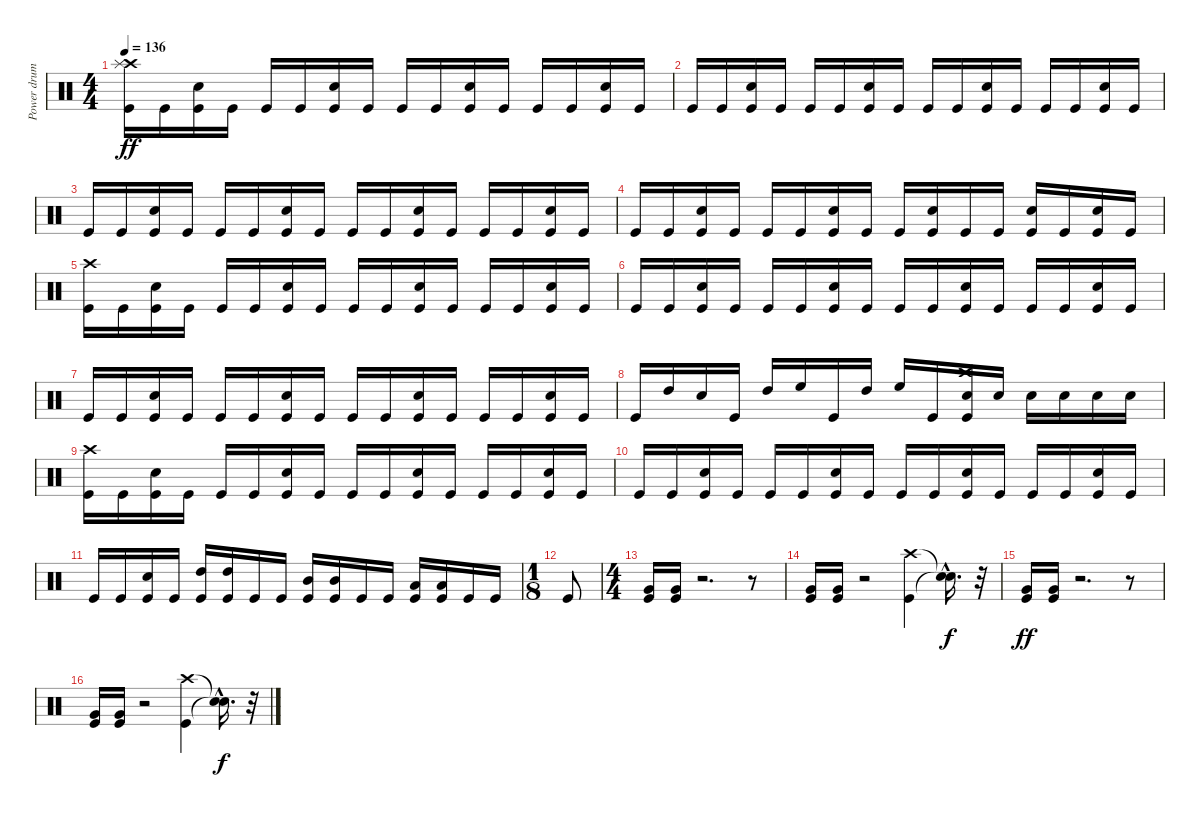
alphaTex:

\track ("Power drums" "Power drum") {instrument percussion}
\staff {score}
\articulation defaults
\ts (4 4)
\tempo 136
\clef neutral
\ks c
("Kick (hit)" "Crash high (hit)" "Splash (hit)").16{dy ff} "Kick (hit)".16 ("Kick (hit)" "Snare (hit) 2").16 "Kick (hit)".16 "Kick (hit)".16 "Kick (hit)".16 ("Kick (hit)" "Snare (hit) 2").16 "Kick (hit)".16 "Kick (hit)".16 "Kick (hit)".16 ("Kick (hit)" "Snare (hit) 2").16 "Kick (hit)".16 "Kick (hit)".16 "Kick (hit)".16 ("Kick (hit)" "Snare (hit) 2").16 "Kick (hit)".16 |
"Kick (hit)".16 "Kick (hit)".16 ("Kick (hit)" "Snare (hit) 2").16 "Kick (hit)".16 "Kick (hit)".16 "Kick (hit)".16 ("Kick (hit)" "Snare (hit) 2").16 "Kick (hit)".16 "Kick (hit)".16 "Kick (hit)".16 ("Kick (hit)" "Snare (hit) 2").16 "Kick (hit)".16 "Kick (hit)".16 "Kick (hit)".16 ("Kick (hit)" "Snare (hit) 2").16 "Kick (hit)".16 |
"Kick (hit)".16 "Kick (hit)".16 ("Kick (hit)" "Snare (hit) 2").16 "Kick (hit)".16 "Kick (hit)".16 "Kick (hit)".16 ("Kick (hit)" "Snare (hit) 2").16 "Kick (hit)".16 "Kick (hit)".16 "Kick (hit)".16 ("Kick (hit)" "Snare (hit) 2").16 "Kick (hit)".16 "Kick (hit)".16 "Kick (hit)".16 ("Kick (hit)" "Snare (hit) 2").16 "Kick (hit)".16 |
"Kick (hit)".16 "Kick (hit)".16 ("Kick (hit)" "Snare (hit) 2").16 "Kick (hit)".16 "Kick (hit)".16 "Kick (hit)".16 ("Kick (hit)" "Snare (hit) 2").16 "Kick (hit)".16 "Kick (hit)".16 ("Kick (hit)" "Snare (hit) 2").16 "Kick (hit)".16 "Kick (hit)".16 ("Kick (hit)" "Snare (hit) 2").16 "Kick (hit)".16 ("Kick (hit)" "Snare (hit) 2").16 "Kick (hit)".16 |
("Kick (hit)" "Crash high (hit)").16 "Kick (hit)".16 ("Kick (hit)" "Snare (hit) 2").16 "Kick (hit)".16 "Kick (hit)".16 "Kick (hit)".16 ("Kick (hit)" "Snare (hit) 2").16 "Kick (hit)".16 "Kick (hit)".16 "Kick (hit)".16 ("Kick (hit)" "Snare (hit) 2").16 "Kick (hit)".16 "Kick (hit)".16 "Kick (hit)".16 ("Kick (hit)" "Snare (hit) 2").16 "Kick (hit)".16 |
"Kick (hit)".16 "Kick (hit)".16 ("Kick (hit)" "Snare (hit) 2").16 "Kick (hit)".16 "Kick (hit)".16 "Kick (hit)".16 ("Kick (hit)" "Snare (hit) 2").16 "Kick (hit)".16 "Kick (hit)".16 "Kick (hit)".16 ("Kick (hit)" "Snare (hit) 2").16 "Kick (hit)".16 "Kick (hit)".16 "Kick (hit)".16 ("Kick (hit)" "Snare (hit) 2").16 "Kick (hit)".16 |
"Kick (hit)".16 "Kick (hit)".16 ("Kick (hit)" "Snare (hit) 2").16 "Kick (hit)".16 "Kick (hit)".16 "Kick (hit)".16 ("Kick (hit)" "Snare (hit) 2").16 "Kick (hit)".16 "Kick (hit)".16 "Kick (hit)".16 ("Kick (hit)" "Snare (hit) 2").16 "Kick (hit)".16 "Kick (hit)".16 "Kick (hit)".16 ("Kick (hit)" "Snare (hit) 2").16 "Kick (hit)".16 |
"Kick (hit)".16 "High Tom (hit)".16 "Snare (hit) 2".16 "Kick (hit)".16 "High Tom (hit)".16 "High Floor Tom (hit)".16 "Kick (hit)".16 "High Tom (hit)".16 "High Floor Tom (hit)".16 "Kick (hit)".16 ("Kick (hit)" "Snare (hit) 2" "Crash high (hit)").16 "Snare (hit) 2".16 "Snare (hit) 2".16 "Snare (hit) 2".16 "Snare (hit) 2".16 "Snare (hit) 2".16 |
("Kick (hit)" "Crash high (hit)").16 "Kick (hit)".16 ("Kick (hit)" "Snare (hit) 2").16 "Kick (hit)".16 "Kick (hit)".16 "Kick (hit)".16 ("Kick (hit)" "Snare (hit) 2").16 "Kick (hit)".16 "Kick (hit)".16 "Kick (hit)".16 ("Kick (hit)" "Snare (hit) 2").16 "Kick (hit)".16 "Kick (hit)".16 "Kick (hit)".16 ("Kick (hit)" "Snare (hit) 2").16 "Kick (hit)".16 |
"Kick (hit)".16 "Kick (hit)".16 ("Kick (hit)" "Snare (hit) 2").16 "Kick (hit)".16 "Kick (hit)".16 "Kick (hit)".16 ("Kick (hit)" "Snare (hit) 2").16 "Kick (hit)".16 "Kick (hit)".16 "Kick (hit)".16 ("Kick (hit)" "Snare (hit) 2").16 "Kick (hit)".16 "Kick (hit)".16 "Kick (hit)".16 ("Kick (hit)" "Snare (hit) 2").16 "Kick (hit)".16 |
"Kick (hit)".16 "Kick (hit)".16 ("Kick (hit)" "Snare (hit) 2").16 "Kick (hit)".16 ("Kick (hit)" "High Tom (hit)").16 ("Kick (hit)" "High Tom (hit)").16 "Kick (hit)".16 "Kick (hit)".16 ("Kick (hit)" "Mid Tom (hit)").16 ("Kick (hit)" "Mid Tom (hit)").16 "Kick (hit)".16 "Kick (hit)".16 ("Kick (hit)" "Low Tom (hit)").16 ("Kick (hit)" "Low Tom (hit)").16 "Kick (hit)".16 "Kick (hit)".16 |
\ts (1 8)
"Kick (hit)".8 |
\ts (4 4)
("Kick (hit)" "Very Low Tom (hit)").16 ("Kick (hit)" "Very Low Tom (hit)").16 r.2{d} r.8 |
("Kick (hit)" "Very Low Tom (hit)").16 ("Kick (hit)" "Very Low Tom (hit)").16 r.2 ("Kick (hit)" "Crash high (hit)").4 ("Snare (hit)"{hac t} "Snare (hit)"{hac t}).16{d dy f} r.32 |
("Kick (hit)" "Very Low Tom (hit)").16{dy ff} ("Kick (hit)" "Very Low Tom (hit)").16 r.2{d} r.8 |
("Kick (hit)" "Very Low Tom (hit)").16 ("Kick (hit)" "Very Low Tom (hit)").16 r.2 ("Kick (hit)" "Crash high (hit)").4 ("Snare (hit)"{hac t} "Snare (hit)"{hac t}).16{d dy f} r.32
